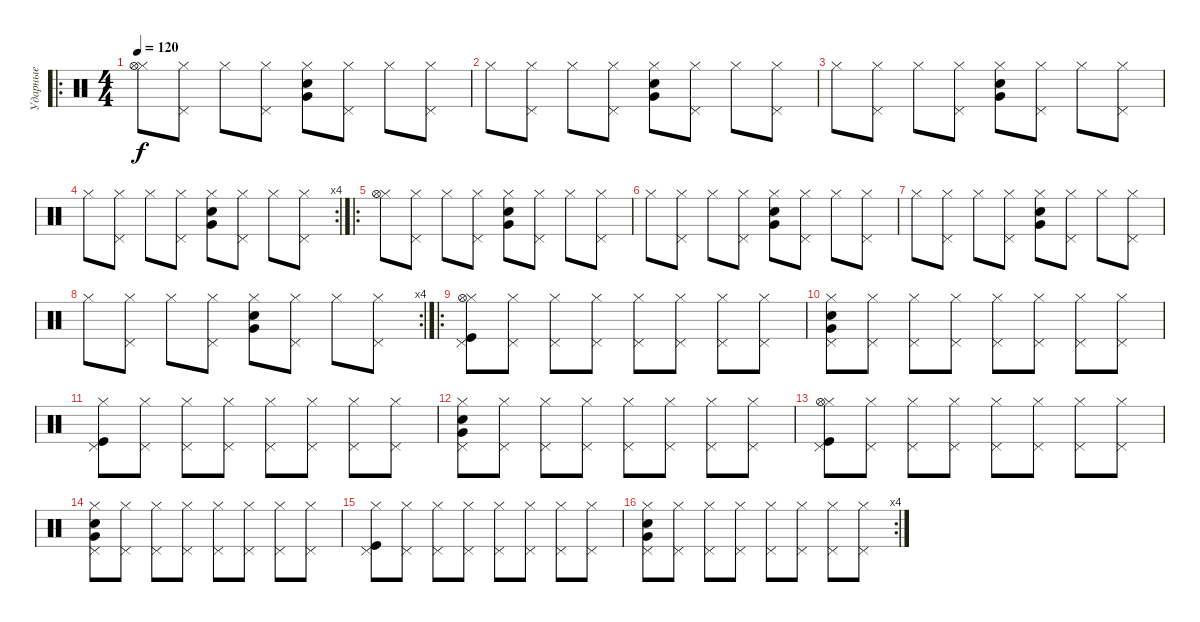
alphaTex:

\track ("Ударные" "Ударные") {instrument percussion}
\staff {score}
\articulation defaults
\ro
\ts (4 4)
\tempo 120
\clef neutral
\ks c
("Hi-Hat (closed)" "Hi-Hat (open)").8{dy f} ("Hi-Hat (closed)" "Pedal Hi-Hat (hit)").8 "Hi-Hat (closed)".8 ("Hi-Hat (closed)" "Pedal Hi-Hat (hit)").8 ("Hi-Hat (closed)" "Electric Snare (hit)" "Very Low Tom (hit)").8 ("Hi-Hat (closed)" "Pedal Hi-Hat (hit)").8 "Hi-Hat (closed)".8 ("Hi-Hat (closed)" "Pedal Hi-Hat (hit)").8 |
"Hi-Hat (closed)".8 ("Hi-Hat (closed)" "Pedal Hi-Hat (hit)").8 "Hi-Hat (closed)".8 ("Hi-Hat (closed)" "Pedal Hi-Hat (hit)").8 ("Hi-Hat (closed)" "Electric Snare (hit)" "Very Low Tom (hit)").8 ("Hi-Hat (closed)" "Pedal Hi-Hat (hit)").8 "Hi-Hat (closed)".8 ("Hi-Hat (closed)" "Pedal Hi-Hat (hit)").8 |
"Hi-Hat (closed)".8 ("Hi-Hat (closed)" "Pedal Hi-Hat (hit)").8 "Hi-Hat (closed)".8 ("Hi-Hat (closed)" "Pedal Hi-Hat (hit)").8 ("Hi-Hat (closed)" "Electric Snare (hit)" "Very Low Tom (hit)").8 ("Hi-Hat (closed)" "Pedal Hi-Hat (hit)").8 "Hi-Hat (closed)".8 ("Hi-Hat (closed)" "Pedal Hi-Hat (hit)").8 |
\rc 4 "Hi-Hat (closed)".8
("Hi-Hat (closed)" "Pedal Hi-Hat (hit)").8 "Hi-Hat (closed)".8 ("Hi-Hat (closed)" "Pedal Hi-Hat (hit)").8 ("Hi-Hat (closed)" "Electric Snare (hit)" "Very Low Tom (hit)").8 ("Hi-Hat (closed)" "Pedal Hi-Hat (hit)").8 "Hi-Hat (closed)".8 ("Hi-Hat (closed)" "Pedal Hi-Hat (hit)").8 |
\ro
("Hi-Hat (closed)" "Hi-Hat (open)").8 ("Hi-Hat (closed)" "Pedal Hi-Hat (hit)").8 "Hi-Hat (closed)".8 ("Hi-Hat (closed)" "Pedal Hi-Hat (hit)").8 ("Hi-Hat (closed)" "Electric Snare (hit)" "Very Low Tom (hit)").8 ("Hi-Hat (closed)" "Pedal Hi-Hat (hit)").8 "Hi-Hat (closed)".8 ("Hi-Hat (closed)" "Pedal Hi-Hat (hit)").8 |
"Hi-Hat (closed)".8 ("Hi-Hat (closed)" "Pedal Hi-Hat (hit)").8 "Hi-Hat (closed)".8 ("Hi-Hat (closed)" "Pedal Hi-Hat (hit)").8 ("Hi-Hat (closed)" "Electric Snare (hit)" "Very Low Tom (hit)").8 ("Hi-Hat (closed)" "Pedal Hi-Hat (hit)").8 "Hi-Hat (closed)".8 ("Hi-Hat (closed)" "Pedal Hi-Hat (hit)").8 |
"Hi-Hat (closed)".8 ("Hi-Hat (closed)" "Pedal Hi-Hat (hit)").8 "Hi-Hat (closed)".8 ("Hi-Hat (closed)" "Pedal Hi-Hat (hit)").8 ("Hi-Hat (closed)" "Electric Snare (hit)" "Very Low Tom (hit)").8 ("Hi-Hat (closed)" "Pedal Hi-Hat (hit)").8 "Hi-Hat (closed)".8 ("Hi-Hat (closed)" "Pedal Hi-Hat (hit)").8 |
\rc 4 "Hi-Hat (closed)".8
("Hi-Hat (closed)" "Pedal Hi-Hat (hit)").8 "Hi-Hat (closed)".8 ("Hi-Hat (closed)" "Pedal Hi-Hat (hit)").8 ("Hi-Hat (closed)" "Electric Snare (hit)" "Very Low Tom (hit)").8 ("Hi-Hat (closed)" "Pedal Hi-Hat (hit)").8 "Hi-Hat (closed)".8 ("Hi-Hat (closed)" "Pedal Hi-Hat (hit)").8 |
\ro
("Hi-Hat (closed)" "Pedal Hi-Hat (hit)" "Hi-Hat (open)" "Kick (hit)").8 ("Hi-Hat (closed)" "Pedal Hi-Hat (hit)").8 ("Hi-Hat (closed)" "Pedal Hi-Hat (hit)").8 ("Hi-Hat (closed)" "Pedal Hi-Hat (hit)").8 ("Hi-Hat (closed)" "Pedal Hi-Hat (hit)").8 ("Hi-Hat (closed)" "Pedal Hi-Hat (hit)").8 ("Hi-Hat (closed)" "Pedal Hi-Hat (hit)").8 ("Hi-Hat (closed)" "Pedal Hi-Hat (hit)").8 |
("Hi-Hat (closed)" "Pedal Hi-Hat (hit)" "Electric Snare (hit)" "Very Low Tom (hit)").8 ("Hi-Hat (closed)" "Pedal Hi-Hat (hit)").8 ("Hi-Hat (closed)" "Pedal Hi-Hat (hit)").8 ("Hi-Hat (closed)" "Pedal Hi-Hat (hit)").8 ("Hi-Hat (closed)" "Pedal Hi-Hat (hit)").8 ("Hi-Hat (closed)" "Pedal Hi-Hat (hit)").8 ("Hi-Hat (closed)" "Pedal Hi-Hat (hit)").8 ("Hi-Hat (closed)" "Pedal Hi-Hat (hit)").8 |
("Hi-Hat (closed)" "Pedal Hi-Hat (hit)" "Kick (hit)").8 ("Hi-Hat (closed)" "Pedal Hi-Hat (hit)").8 ("Hi-Hat (closed)" "Pedal Hi-Hat (hit)").8 ("Hi-Hat (closed)" "Pedal Hi-Hat (hit)").8 ("Hi-Hat (closed)" "Pedal Hi-Hat (hit)").8 ("Hi-Hat (closed)" "Pedal Hi-Hat (hit)").8 ("Hi-Hat (closed)" "Pedal Hi-Hat (hit)").8 ("Hi-Hat (closed)" "Pedal Hi-Hat (hit)").8 |
("Hi-Hat (closed)" "Pedal Hi-Hat (hit)" "Electric Snare (hit)" "Very Low Tom (hit)").8 ("Hi-Hat (closed)" "Pedal Hi-Hat (hit)").8 ("Hi-Hat (closed)" "Pedal Hi-Hat (hit)").8 ("Hi-Hat (closed)" "Pedal Hi-Hat (hit)").8 ("Hi-Hat (closed)" "Pedal Hi-Hat (hit)").8 ("Hi-Hat (closed)" "Pedal Hi-Hat (hit)").8 ("Hi-Hat (closed)" "Pedal Hi-Hat (hit)").8 ("Hi-Hat (closed)" "Pedal Hi-Hat (hit)").8 |
("Hi-Hat (closed)" "Pedal Hi-Hat (hit)" "Hi-Hat (open)" "Kick (hit)").8 ("Hi-Hat (closed)" "Pedal Hi-Hat (hit)").8 ("Hi-Hat (closed)" "Pedal Hi-Hat (hit)").8 ("Hi-Hat (closed)" "Pedal Hi-Hat (hit)").8 ("Hi-Hat (closed)" "Pedal Hi-Hat (hit)").8 ("Hi-Hat (closed)" "Pedal Hi-Hat (hit)").8 ("Hi-Hat (closed)" "Pedal Hi-Hat (hit)").8 ("Hi-Hat (closed)" "Pedal Hi-Hat (hit)").8 |
("Hi-Hat (closed)" "Pedal Hi-Hat (hit)" "Electric Snare (hit)" "Very Low Tom (hit)").8 ("Hi-Hat (closed)" "Pedal Hi-Hat (hit)").8 ("Hi-Hat (closed)" "Pedal Hi-Hat (hit)").8 ("Hi-Hat (closed)" "Pedal Hi-Hat (hit)").8 ("Hi-Hat (closed)" "Pedal Hi-Hat (hit)").8 ("Hi-Hat (closed)" "Pedal Hi-Hat (hit)").8 ("Hi-Hat (closed)" "Pedal Hi-Hat (hit)").8 ("Hi-Hat (closed)" "Pedal Hi-Hat (hit)").8 |
("Hi-Hat (closed)" "Pedal Hi-Hat (hit)" "Kick (hit)").8 ("Hi-Hat (closed)" "Pedal Hi-Hat (hit)").8 ("Hi-Hat (closed)" "Pedal Hi-Hat (hit)").8 ("Hi-Hat (closed)" "Pedal Hi-Hat (hit)").8 ("Hi-Hat (closed)" "Pedal Hi-Hat (hit)").8 ("Hi-Hat (closed)" "Pedal Hi-Hat (hit)").8 ("Hi-Hat (closed)" "Pedal Hi-Hat (hit)").8 ("Hi-Hat (closed)" "Pedal Hi-Hat (hit)").8 |
\rc 4
("Hi-Hat (closed)" "Pedal Hi-Hat (hit)" "Electric Snare (hit)" "Very Low Tom (hit)").8 ("Hi-Hat (closed)" "Pedal Hi-Hat (hit)").8 ("Hi-Hat (closed)" "Pedal Hi-Hat (hit)").8 ("Hi-Hat (closed)" "Pedal Hi-Hat (hit)").8 ("Hi-Hat (closed)" "Pedal Hi-Hat (hit)").8 ("Hi-Hat (closed)" "Pedal Hi-Hat (hit)").8 ("Hi-Hat (closed)" "Pedal Hi-Hat (hit)").8 ("Hi-Hat (closed)" "Pedal Hi-Hat (hit)").8
